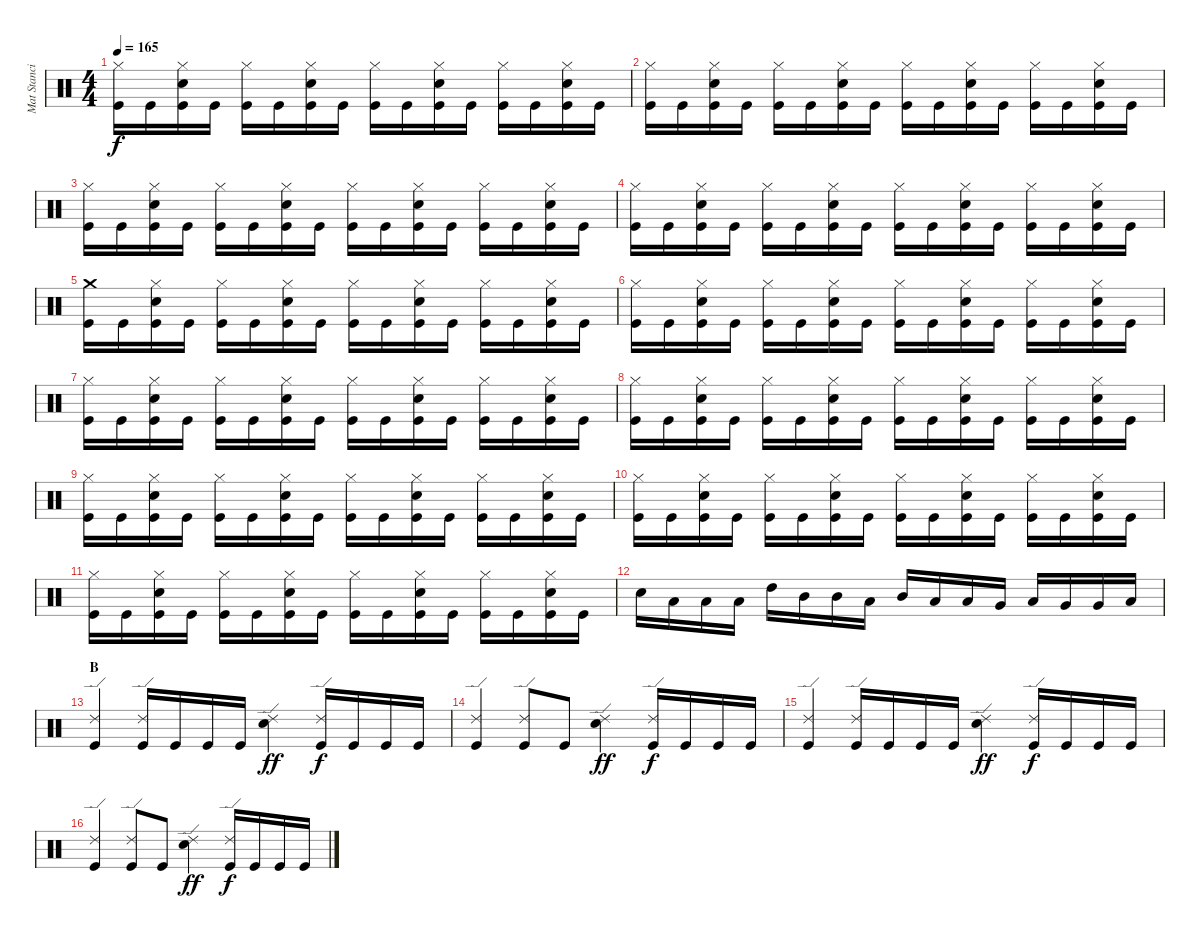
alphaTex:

\track ("Mat Stancioiu (Drums)" "Mat Stanci") {instrument percussion}
\staff {score}
\articulation defaults
\ts (4 4)
\tempo 165
\clef neutral
\ks c
("Hi-Hat (closed)" "Kick (hit)").16{dy f} "Kick (hit)".16 ("Hi-Hat (closed)" "Electric Snare (hit)" "Kick (hit)").16 "Kick (hit)".16 ("Hi-Hat (closed)" "Kick (hit)").16 "Kick (hit)".16 ("Hi-Hat (closed)" "Electric Snare (hit)" "Kick (hit)").16 "Kick (hit)".16 ("Hi-Hat (closed)" "Kick (hit)").16 "Kick (hit)".16 ("Hi-Hat (closed)" "Electric Snare (hit)" "Kick (hit)").16 "Kick (hit)".16 ("Hi-Hat (closed)" "Kick (hit)").16 "Kick (hit)".16 ("Hi-Hat (closed)" "Electric Snare (hit)" "Kick (hit)").16 "Kick (hit)".16 |
("Hi-Hat (closed)" "Kick (hit)").16 "Kick (hit)".16 ("Hi-Hat (closed)" "Electric Snare (hit)" "Kick (hit)").16 "Kick (hit)".16 ("Hi-Hat (closed)" "Kick (hit)").16 "Kick (hit)".16 ("Hi-Hat (closed)" "Electric Snare (hit)" "Kick (hit)").16 "Kick (hit)".16 ("Hi-Hat (closed)" "Kick (hit)").16 "Kick (hit)".16 ("Hi-Hat (closed)" "Electric Snare (hit)" "Kick (hit)").16 "Kick (hit)".16 ("Hi-Hat (closed)" "Kick (hit)").16 "Kick (hit)".16 ("Hi-Hat (closed)" "Electric Snare (hit)" "Kick (hit)").16 "Kick (hit)".16 |
("Hi-Hat (closed)" "Kick (hit)").16 "Kick (hit)".16 ("Hi-Hat (closed)" "Electric Snare (hit)" "Kick (hit)").16 "Kick (hit)".16 ("Hi-Hat (closed)" "Kick (hit)").16 "Kick (hit)".16 ("Hi-Hat (closed)" "Electric Snare (hit)" "Kick (hit)").16 "Kick (hit)".16 ("Hi-Hat (closed)" "Kick (hit)").16 "Kick (hit)".16 ("Hi-Hat (closed)" "Electric Snare (hit)" "Kick (hit)").16 "Kick (hit)".16 ("Hi-Hat (closed)" "Kick (hit)").16 "Kick (hit)".16 ("Hi-Hat (closed)" "Electric Snare (hit)" "Kick (hit)").16 "Kick (hit)".16 |
("Hi-Hat (closed)" "Kick (hit)").16 "Kick (hit)".16 ("Hi-Hat (closed)" "Electric Snare (hit)" "Kick (hit)").16 "Kick (hit)".16 ("Hi-Hat (closed)" "Kick (hit)").16 "Kick (hit)".16 ("Hi-Hat (closed)" "Electric Snare (hit)" "Kick (hit)").16 "Kick (hit)".16 ("Hi-Hat (closed)" "Kick (hit)").16 "Kick (hit)".16 ("Hi-Hat (closed)" "Electric Snare (hit)" "Kick (hit)").16 "Kick (hit)".16 ("Hi-Hat (closed)" "Kick (hit)").16 "Kick (hit)".16 ("Hi-Hat (closed)" "Electric Snare (hit)" "Kick (hit)").16 "Kick (hit)".16 |
("Crash medium (hit)" "Kick (hit)").16 "Kick (hit)".16 ("Hi-Hat (closed)" "Electric Snare (hit)" "Kick (hit)").16 "Kick (hit)".16 ("Hi-Hat (closed)" "Kick (hit)").16 "Kick (hit)".16 ("Hi-Hat (closed)" "Electric Snare (hit)" "Kick (hit)").16 "Kick (hit)".16 ("Hi-Hat (closed)" "Kick (hit)").16 "Kick (hit)".16 ("Hi-Hat (closed)" "Electric Snare (hit)" "Kick (hit)").16 "Kick (hit)".16 ("Hi-Hat (closed)" "Kick (hit)").16 "Kick (hit)".16 ("Hi-Hat (closed)" "Electric Snare (hit)" "Kick (hit)").16 "Kick (hit)".16 |
("Hi-Hat (closed)" "Kick (hit)").16 "Kick (hit)".16 ("Hi-Hat (closed)" "Electric Snare (hit)" "Kick (hit)").16 "Kick (hit)".16 ("Hi-Hat (closed)" "Kick (hit)").16 "Kick (hit)".16 ("Hi-Hat (closed)" "Electric Snare (hit)" "Kick (hit)").16 "Kick (hit)".16 ("Hi-Hat (closed)" "Kick (hit)").16 "Kick (hit)".16 ("Hi-Hat (closed)" "Electric Snare (hit)" "Kick (hit)").16 "Kick (hit)".16 ("Hi-Hat (closed)" "Kick (hit)").16 "Kick (hit)".16 ("Hi-Hat (closed)" "Electric Snare (hit)" "Kick (hit)").16 "Kick (hit)".16 |
("Hi-Hat (closed)" "Kick (hit)").16 "Kick (hit)".16 ("Hi-Hat (closed)" "Electric Snare (hit)" "Kick (hit)").16 "Kick (hit)".16 ("Hi-Hat (closed)" "Kick (hit)").16 "Kick (hit)".16 ("Hi-Hat (closed)" "Electric Snare (hit)" "Kick (hit)").16 "Kick (hit)".16 ("Hi-Hat (closed)" "Kick (hit)").16 "Kick (hit)".16 ("Hi-Hat (closed)" "Electric Snare (hit)" "Kick (hit)").16 "Kick (hit)".16 ("Hi-Hat (closed)" "Kick (hit)").16 "Kick (hit)".16 ("Hi-Hat (closed)" "Electric Snare (hit)" "Kick (hit)").16 "Kick (hit)".16 |
("Hi-Hat (closed)" "Kick (hit)").16 "Kick (hit)".16 ("Hi-Hat (closed)" "Electric Snare (hit)" "Kick (hit)").16 "Kick (hit)".16 ("Hi-Hat (closed)" "Kick (hit)").16 "Kick (hit)".16 ("Hi-Hat (closed)" "Electric Snare (hit)" "Kick (hit)").16 "Kick (hit)".16 ("Hi-Hat (closed)" "Kick (hit)").16 "Kick (hit)".16 ("Hi-Hat (closed)" "Electric Snare (hit)" "Kick (hit)").16 "Kick (hit)".16 ("Hi-Hat (closed)" "Kick (hit)").16 "Kick (hit)".16 ("Hi-Hat (closed)" "Electric Snare (hit)" "Kick (hit)").16 "Kick (hit)".16 |
("Hi-Hat (closed)" "Kick (hit)").16 "Kick (hit)".16 ("Hi-Hat (closed)" "Electric Snare (hit)" "Kick (hit)").16 "Kick (hit)".16 ("Hi-Hat (closed)" "Kick (hit)").16 "Kick (hit)".16 ("Hi-Hat (closed)" "Electric Snare (hit)" "Kick (hit)").16 "Kick (hit)".16 ("Hi-Hat (closed)" "Kick (hit)").16 "Kick (hit)".16 ("Hi-Hat (closed)" "Electric Snare (hit)" "Kick (hit)").16 "Kick (hit)".16 ("Hi-Hat (closed)" "Kick (hit)").16 "Kick (hit)".16 ("Hi-Hat (closed)" "Electric Snare (hit)" "Kick (hit)").16 "Kick (hit)".16 |
("Hi-Hat (closed)" "Kick (hit)").16 "Kick (hit)".16 ("Hi-Hat (closed)" "Electric Snare (hit)" "Kick (hit)").16 "Kick (hit)".16 ("Hi-Hat (closed)" "Kick (hit)").16 "Kick (hit)".16 ("Hi-Hat (closed)" "Electric Snare (hit)" "Kick (hit)").16 "Kick (hit)".16 ("Hi-Hat (closed)" "Kick (hit)").16 "Kick (hit)".16 ("Hi-Hat (closed)" "Electric Snare (hit)" "Kick (hit)").16 "Kick (hit)".16 ("Hi-Hat (closed)" "Kick (hit)").16 "Kick (hit)".16 ("Hi-Hat (closed)" "Electric Snare (hit)" "Kick (hit)").16 "Kick (hit)".16 |
("Hi-Hat (closed)" "Kick (hit)").16 "Kick (hit)".16 ("Hi-Hat (closed)" "Electric Snare (hit)" "Kick (hit)").16 "Kick (hit)".16 ("Hi-Hat (closed)" "Kick (hit)").16 "Kick (hit)".16 ("Hi-Hat (closed)" "Electric Snare (hit)" "Kick (hit)").16 "Kick (hit)".16 ("Hi-Hat (closed)" "Kick (hit)").16 "Kick (hit)".16 ("Hi-Hat (closed)" "Electric Snare (hit)" "Kick (hit)").16 "Kick (hit)".16 ("Hi-Hat (closed)" "Kick (hit)").16 "Kick (hit)".16 ("Hi-Hat (closed)" "Electric Snare (hit)" "Kick (hit)").16 "Kick (hit)".16 |
"Electric Snare (hit)".16 "Low Tom (hit)".16 "Low Tom (hit)".16 "Low Tom (hit)".16 "High Tom (hit)".16 "Mid Tom (hit)".16 "Mid Tom (hit)".16 "Low Tom (hit)".16 "Mid Tom (hit)".16 "Low Tom (hit)".16 "Low Tom (hit)".16 "Very Low Tom (hit)".16 "Low Tom (hit)".16 "Very Low Tom (hit)".16 "Very Low Tom (hit)".16 "Low Floor Tom (hit)".16 |
\section ("" "B")
("Ride (edge) 2" "Kick (hit)").4 ("Ride (edge) 2" "Kick (hit)").16 "Kick (hit)".16 "Kick (hit)".16 "Kick (hit)".16 ("Ride (edge) 2" "Electric Snare (hit)").4{dy ff} ("Ride (edge) 2" "Kick (hit)").16{dy f} "Kick (hit)".16 "Kick (hit)".16 "Kick (hit)".16 |
("Ride (edge) 2" "Kick (hit)").4 ("Ride (edge) 2" "Kick (hit)").8 "Kick (hit)".8 ("Ride (edge) 2" "Electric Snare (hit)").4{dy ff} ("Ride (edge) 2" "Kick (hit)").16{dy f} "Kick (hit)".16 "Kick (hit)".16 "Kick (hit)".16 |
("Ride (edge) 2" "Kick (hit)").4 ("Ride (edge) 2" "Kick (hit)").16 "Kick (hit)".16 "Kick (hit)".16 "Kick (hit)".16 ("Ride (edge) 2" "Electric Snare (hit)").4{dy ff} ("Ride (edge) 2" "Kick (hit)").16{dy f} "Kick (hit)".16 "Kick (hit)".16 "Kick (hit)".16 |
("Ride (edge) 2" "Kick (hit)").4 ("Ride (edge) 2" "Kick (hit)").8 "Kick (hit)".8 ("Ride (edge) 2" "Electric Snare (hit)").4{dy ff} ("Ride (edge) 2" "Kick (hit)").16{dy f} "Kick (hit)".16 "Kick (hit)".16 "Kick (hit)".16
